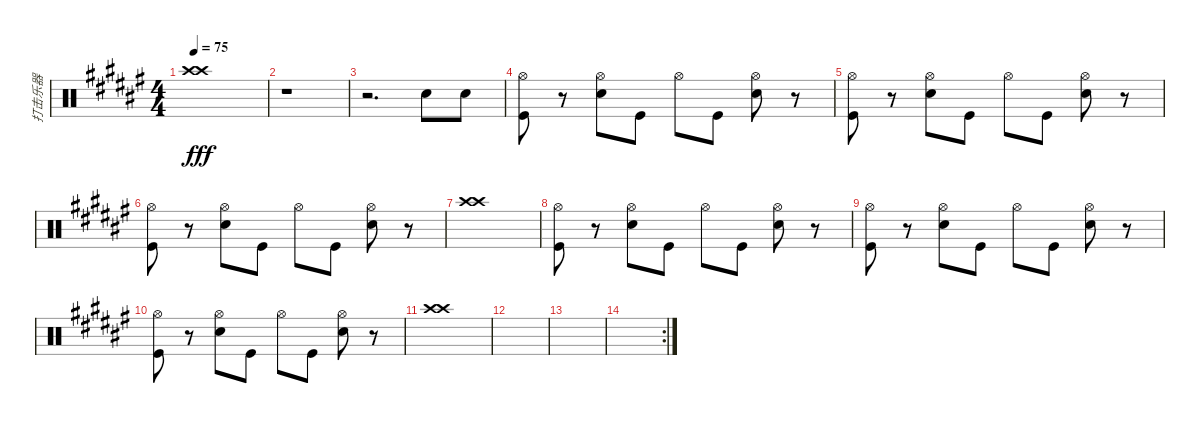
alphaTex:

\track ("打击乐器" "打击乐器") {instrument percussion}
\staff {score}
\articulation defaults
\ts (4 4)
\tempo 75
\clef neutral
\ks f#
("Crash high (hit)" "Crash high (hit)").1{dy fff} |
r.1 |
r.2{d} "Snare (hit) 2".8 "Snare (hit) 2".8 |
("Kick (hit)" "Hi-Hat (open)").8 r.8 ("Hi-Hat (open)" "Snare (hit) 2").8 "Kick (hit)".8 "Hi-Hat (open)".8 "Kick (hit)".8 ("Hi-Hat (open)" "Snare (hit) 2").8 r.8 |
("Kick (hit)" "Hi-Hat (open)").8 r.8 ("Hi-Hat (open)" "Snare (hit) 2").8 "Kick (hit)".8 "Hi-Hat (open)".8 "Kick (hit)".8 ("Hi-Hat (open)" "Snare (hit) 2").8 r.8 |
("Kick (hit)" "Hi-Hat (open)").8 r.8 ("Hi-Hat (open)" "Snare (hit) 2").8 "Kick (hit)".8 "Hi-Hat (open)".8 "Kick (hit)".8 ("Hi-Hat (open)" "Snare (hit) 2").8 r.8 |
("Crash high (hit)" "Crash high (hit)").1 |
("Kick (hit)" "Hi-Hat (open)").8 r.8 ("Hi-Hat (open)" "Snare (hit) 2").8 "Kick (hit)".8 "Hi-Hat (open)".8 "Kick (hit)".8 ("Hi-Hat (open)" "Snare (hit) 2").8 r.8 |
("Kick (hit)" "Hi-Hat (open)").8 r.8 ("Hi-Hat (open)" "Snare (hit) 2").8 "Kick (hit)".8 "Hi-Hat (open)".8 "Kick (hit)".8 ("Hi-Hat (open)" "Snare (hit) 2").8 r.8 |
("Kick (hit)" "Hi-Hat (open)").8 r.8 ("Hi-Hat (open)" "Snare (hit) 2").8 "Kick (hit)".8 "Hi-Hat (open)".8 "Kick (hit)".8 ("Hi-Hat (open)" "Snare (hit) 2").8 r.8 |
("Crash high (hit)" "Crash high (hit)").1 |
|
|
\rc 2
